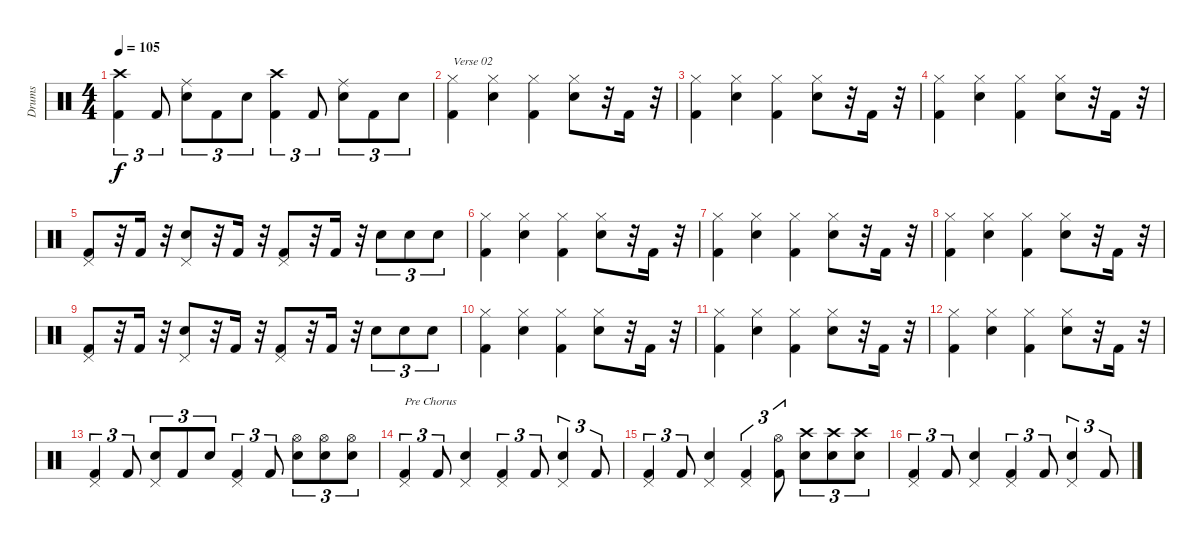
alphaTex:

\track ("Drums" "Drums") {instrument percussion}
\staff {score}
\articulation defaults
\ts (4 4)
\tempo 105
\clef neutral
\ks c
("Crash high (hit)" "Kick (hit) 2").4{tu (3 2) dy f} "Kick (hit) 2".8{tu (3 2)} ("Ride (middle)" "Snare (hit) 2").8{tu (3 2)} "Kick (hit) 2".8{tu (3 2)} "Snare (hit) 2".8{tu (3 2)} ("Crash high (hit)" "Kick (hit) 2").4{tu (3 2)} "Kick (hit) 2".8{tu (3 2)} ("Ride (middle)" "Snare (hit) 2").8{tu (3 2)} "Kick (hit) 2".8{tu (3 2)} "Snare (hit) 2".8{tu (3 2)} |
("Hi-Hat (closed)" "Kick (hit) 2").4{txt "Verse 02"} ("Hi-Hat (closed)" "Snare (hit) 2").4 ("Hi-Hat (closed)" "Kick (hit) 2").4 ("Hi-Hat (closed)" "Snare (hit) 2").8 r.32 "Kick (hit) 2".16 r.32 |
("Hi-Hat (closed)" "Kick (hit) 2").4 ("Hi-Hat (closed)" "Snare (hit) 2").4 ("Hi-Hat (closed)" "Kick (hit) 2").4 ("Hi-Hat (closed)" "Snare (hit) 2").8 r.32 "Kick (hit) 2".16 r.32 |
("Hi-Hat (closed)" "Kick (hit) 2").4 ("Hi-Hat (closed)" "Snare (hit) 2").4 ("Hi-Hat (closed)" "Kick (hit) 2").4 ("Hi-Hat (closed)" "Snare (hit) 2").8 r.32 "Kick (hit) 2".16 r.32 |
("Pedal Hi-Hat (hit)" "Kick (hit) 2").8 r.32 "Kick (hit) 2".16 r.32 ("Pedal Hi-Hat (hit)" "Snare (hit) 2").8 r.32 "Kick (hit) 2".16 r.32 ("Pedal Hi-Hat (hit)" "Kick (hit) 2").8 r.32 "Kick (hit) 2".16 r.32 "Snare (hit) 2".8{tu (3 2)} "Snare (hit) 2".8{tu (3 2)} "Snare (hit) 2".8{tu (3 2)} |
("Hi-Hat (closed)" "Kick (hit) 2").4 ("Hi-Hat (closed)" "Snare (hit) 2").4 ("Hi-Hat (closed)" "Kick (hit) 2").4 ("Hi-Hat (closed)" "Snare (hit) 2").8 r.32 "Kick (hit) 2".16 r.32 |
("Hi-Hat (closed)" "Kick (hit) 2").4 ("Hi-Hat (closed)" "Snare (hit) 2").4 ("Hi-Hat (closed)" "Kick (hit) 2").4 ("Hi-Hat (closed)" "Snare (hit) 2").8 r.32 "Kick (hit) 2".16 r.32 |
("Hi-Hat (closed)" "Kick (hit) 2").4 ("Hi-Hat (closed)" "Snare (hit) 2").4 ("Hi-Hat (closed)" "Kick (hit) 2").4 ("Hi-Hat (closed)" "Snare (hit) 2").8 r.32 "Kick (hit) 2".16 r.32 |
("Pedal Hi-Hat (hit)" "Kick (hit) 2").8 r.32 "Kick (hit) 2".16 r.32 ("Pedal Hi-Hat (hit)" "Snare (hit) 2").8 r.32 "Kick (hit) 2".16 r.32 ("Pedal Hi-Hat (hit)" "Kick (hit) 2").8 r.32 "Kick (hit) 2".16 r.32 "Snare (hit) 2".8{tu (3 2)} "Snare (hit) 2".8{tu (3 2)} "Snare (hit) 2".8{tu (3 2)} |
("Hi-Hat (closed)" "Kick (hit) 2").4 ("Hi-Hat (closed)" "Snare (hit) 2").4 ("Hi-Hat (closed)" "Kick (hit) 2").4 ("Hi-Hat (closed)" "Snare (hit) 2").8 r.32 "Kick (hit) 2".16 r.32 |
("Hi-Hat (closed)" "Kick (hit) 2").4 ("Hi-Hat (closed)" "Snare (hit) 2").4 ("Hi-Hat (closed)" "Kick (hit) 2").4 ("Hi-Hat (closed)" "Snare (hit) 2").8 r.32 "Kick (hit) 2".16 r.32 |
("Hi-Hat (closed)" "Kick (hit) 2").4 ("Hi-Hat (closed)" "Snare (hit) 2").4 ("Hi-Hat (closed)" "Kick (hit) 2").4 ("Hi-Hat (closed)" "Snare (hit) 2").8 r.32 "Kick (hit) 2".16 r.32 |
("Pedal Hi-Hat (hit)" "Kick (hit) 2").4{tu (3 2)} "Kick (hit) 2".8{tu (3 2)} ("Pedal Hi-Hat (hit)" "Snare (hit) 2").8{tu (3 2)} "Kick (hit) 2".8{tu (3 2)} "Snare (hit) 2".8{tu (3 2)} ("Pedal Hi-Hat (hit)" "Kick (hit) 2").4{tu (3 2)} "Kick (hit) 2".8{tu (3 2)} ("Hi-Hat (open)" "Snare (hit) 2").8{tu (3 2)} ("Hi-Hat (open)" "Snare (hit) 2").8{tu (3 2)} ("Hi-Hat (open)" "Snare (hit) 2").8{tu (3 2)} |
("Pedal Hi-Hat (hit)" "Kick (hit) 2").4{tu (3 2) txt "Pre Chorus"} "Kick (hit) 2".8{tu (3 2)} ("Pedal Hi-Hat (hit)" "Snare (hit) 2").4 ("Pedal Hi-Hat (hit)" "Kick (hit) 2").4{tu (3 2)} "Kick (hit) 2".8{tu (3 2)} ("Pedal Hi-Hat (hit)" "Snare (hit) 2").4{tu (3 2)} "Kick (hit) 2".8{tu (3 2)} |
("Pedal Hi-Hat (hit)" "Kick (hit) 2").4{tu (3 2)} "Kick (hit) 2".8{tu (3 2)} ("Pedal Hi-Hat (hit)" "Snare (hit) 2").4 ("Pedal Hi-Hat (hit)" "Kick (hit) 2").4{tu (3 2)} ("Hi-Hat (open)" "Kick (hit) 2").8{tu (3 2)} ("Crash high (hit)" "Snare (hit) 2").8{tu (3 2)} ("Crash high (hit)" "Snare (hit) 2").8{tu (3 2)} ("Crash high (hit)" "Snare (hit) 2").8{tu (3 2)} |
("Pedal Hi-Hat (hit)" "Kick (hit) 2").4{tu (3 2)} "Kick (hit) 2".8{tu (3 2)} ("Pedal Hi-Hat (hit)" "Snare (hit) 2").4 ("Pedal Hi-Hat (hit)" "Kick (hit) 2").4{tu (3 2)} "Kick (hit) 2".8{tu (3 2)} ("Pedal Hi-Hat (hit)" "Snare (hit) 2").4{tu (3 2)} "Kick (hit) 2".8{tu (3 2)}
